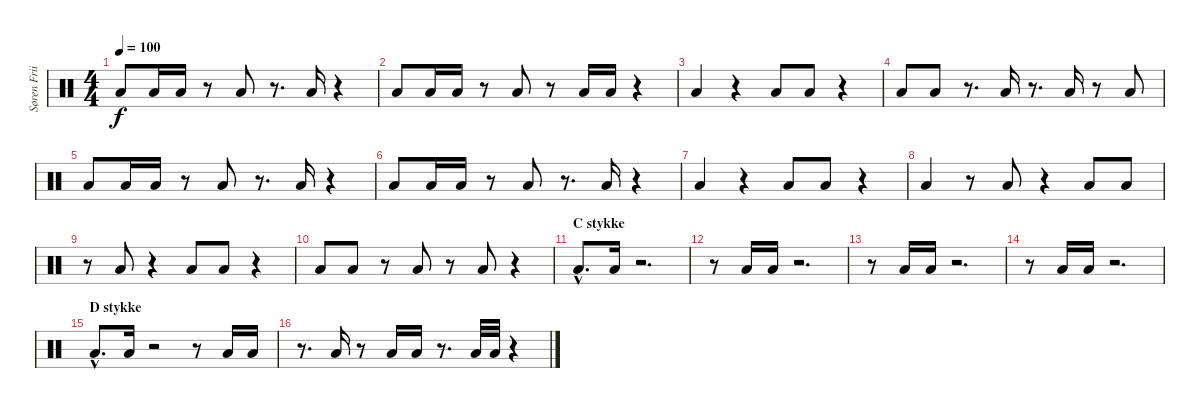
\track ("Søren Friis (Drums)" "Søren Frii") {instrument percussion}
\staff {score}
\articulation defaults
\ts (4 4)
\tempo 100
\clef neutral
\ks c "Low Floor Tom (hit)".8{dy f} "Low Floor Tom (hit)".16 "Low Floor Tom (hit)".16
r.8 "Low Floor Tom (hit)".8 r.8{d} "Low Floor Tom (hit)".16 r.4 |
"Low Floor Tom (hit)".8 "Low Floor Tom (hit)".16 "Low Floor Tom (hit)".16 r.8 "Low Floor Tom (hit)".8 r.8 "Low Floor Tom (hit)".16 "Low Floor Tom (hit)".16 r.4 |
"Low Floor Tom (hit)".4 r.4 "Low Floor Tom (hit)".8 "Low Floor Tom (hit)".8 r.4 |
"Low Floor Tom (hit)".8 "Low Floor Tom (hit)".8 r.8{d} "Low Floor Tom (hit)".16 r.8{d} "Low Floor Tom (hit)".16 r.8 "Low Floor Tom (hit)".8 |
"Low Floor Tom (hit)".8 "Low Floor Tom (hit)".16 "Low Floor Tom (hit)".16 r.8 "Low Floor Tom (hit)".8 r.8{d} "Low Floor Tom (hit)".16 r.4 |
"Low Floor Tom (hit)".8 "Low Floor Tom (hit)".16 "Low Floor Tom (hit)".16 r.8 "Low Floor Tom (hit)".8 r.8{d} "Low Floor Tom (hit)".16 r.4 |
"Low Floor Tom (hit)".4 r.4 "Low Floor Tom (hit)".8 "Low Floor Tom (hit)".8 r.4 |
"Low Floor Tom (hit)".4 r.8 "Low Floor Tom (hit)".8 r.4 "Low Floor Tom (hit)".8 "Low Floor Tom (hit)".8 |
r.8 "Low Floor Tom (hit)".8 r.4 "Low Floor Tom (hit)".8 "Low Floor Tom (hit)".8 r.4 |
"Low Floor Tom (hit)".8 "Low Floor Tom (hit)".8 r.8 "Low Floor Tom (hit)".8 r.8 "Low Floor Tom (hit)".8 r.4 |
\section ("" "C stykke")
"Low Floor Tom (hit)"{hac}.8{d} "Low Floor Tom (hit)".16 r.2{d} |
r.8 "Low Floor Tom (hit)".16 "Low Floor Tom (hit)".16 r.2{d} |
r.8 "Low Floor Tom (hit)".16 "Low Floor Tom (hit)".16 r.2{d} |
r.8 "Low Floor Tom (hit)".16 "Low Floor Tom (hit)".16 r.2{d} |
\section ("" "D stykke")
"Low Floor Tom (hit)"{hac}.8{d} "Low Floor Tom (hit)".16 r.2 r.8 "Low Floor Tom (hit)".16 "Low Floor Tom (hit)".16 |
r.8{d} "Low Floor Tom (hit)".16 r.8 "Low Floor Tom (hit)".16 "Low Floor Tom (hit)".16 r.8{d} "Low Floor Tom (hit)".32 "Low Floor Tom (hit)".32 r.4
